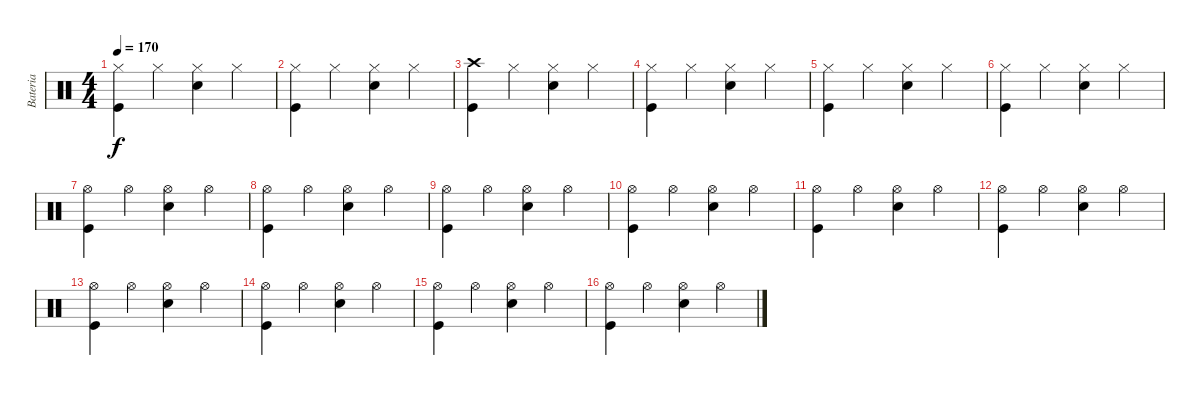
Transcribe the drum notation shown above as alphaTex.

\track ("Bateria" "Bateria") {instrument percussion}
\staff {score}
\articulation defaults
\ts (4 4)
\tempo 170
\clef neutral
\ks c
("Hi-Hat (closed)" "Kick (hit)").4{dy f} "Hi-Hat (closed)".4 ("Hi-Hat (closed)" "Snare (hit) 2").4 "Hi-Hat (closed)".4 |
("Hi-Hat (closed)" "Kick (hit)").4 "Hi-Hat (closed)".4 ("Hi-Hat (closed)" "Snare (hit) 2").4 "Hi-Hat (closed)".4 |
("Crash high (hit)" "Kick (hit)").4 "Hi-Hat (closed)".4 ("Hi-Hat (closed)" "Snare (hit) 2").4 "Hi-Hat (closed)".4 |
("Hi-Hat (closed)" "Kick (hit)").4 "Hi-Hat (closed)".4 ("Hi-Hat (closed)" "Snare (hit) 2").4 "Hi-Hat (closed)".4 |
("Hi-Hat (closed)" "Kick (hit)").4 "Hi-Hat (closed)".4 ("Hi-Hat (closed)" "Snare (hit) 2").4 "Hi-Hat (closed)".4 |
("Hi-Hat (closed)" "Kick (hit)").4 "Hi-Hat (closed)".4 ("Hi-Hat (closed)" "Snare (hit) 2").4 "Hi-Hat (closed)".4 |
("Hi-Hat (open)" "Kick (hit)").4 "Hi-Hat (open)".4 ("Hi-Hat (open)" "Snare (hit) 2").4 "Hi-Hat (open)".4 |
("Hi-Hat (open)" "Kick (hit)").4 "Hi-Hat (open)".4 ("Hi-Hat (open)" "Snare (hit) 2").4 "Hi-Hat (open)".4 |
("Hi-Hat (open)" "Kick (hit)").4 "Hi-Hat (open)".4 ("Hi-Hat (open)" "Snare (hit) 2").4 "Hi-Hat (open)".4 |
("Hi-Hat (open)" "Kick (hit)").4 "Hi-Hat (open)".4 ("Hi-Hat (open)" "Snare (hit) 2").4 "Hi-Hat (open)".4 |
("Hi-Hat (open)" "Kick (hit)").4 "Hi-Hat (open)".4 ("Hi-Hat (open)" "Snare (hit) 2").4 "Hi-Hat (open)".4 |
("Hi-Hat (open)" "Kick (hit)").4 "Hi-Hat (open)".4 ("Hi-Hat (open)" "Snare (hit) 2").4 "Hi-Hat (open)".4 |
("Hi-Hat (open)" "Kick (hit)").4 "Hi-Hat (open)".4 ("Hi-Hat (open)" "Snare (hit) 2").4 "Hi-Hat (open)".4 |
("Hi-Hat (open)" "Kick (hit)").4 "Hi-Hat (open)".4 ("Hi-Hat (open)" "Snare (hit) 2").4 "Hi-Hat (open)".4 |
("Hi-Hat (open)" "Kick (hit)").4 "Hi-Hat (open)".4 ("Hi-Hat (open)" "Snare (hit) 2").4 "Hi-Hat (open)".4 |
("Hi-Hat (open)" "Kick (hit)").4 "Hi-Hat (open)".4 ("Hi-Hat (open)" "Snare (hit) 2").4 "Hi-Hat (open)".4
